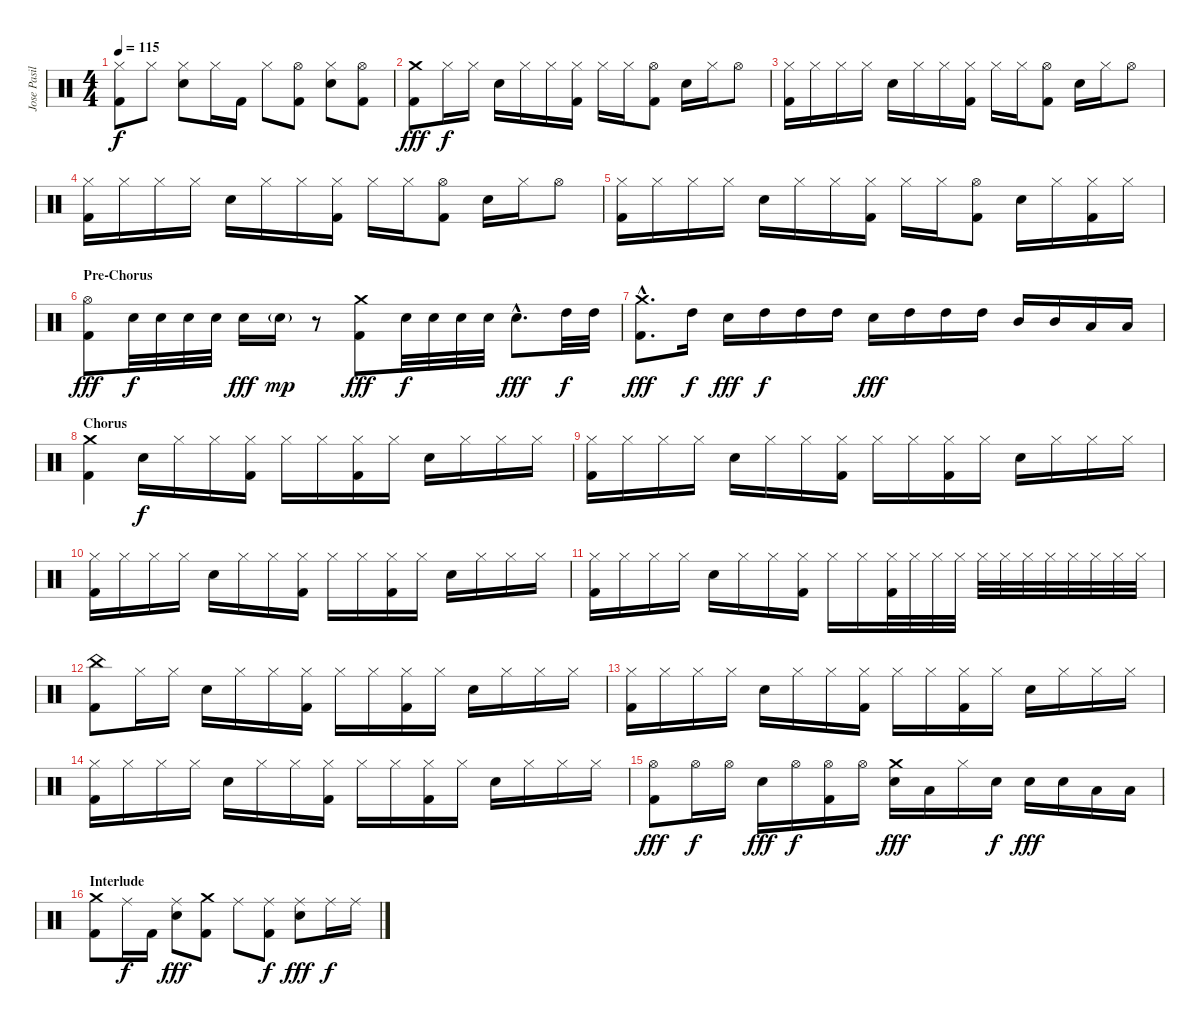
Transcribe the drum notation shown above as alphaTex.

\track ("Jose Pasillas - Drums" "Jose Pasil") {instrument percussion}
\staff {score}
\articulation defaults
\ts (4 4)
\tempo 115
\clef neutral
\ks c
("Hi-Hat (closed)" "Kick (hit) 2").8{dy f} "Hi-Hat (closed)".8 ("Hi-Hat (closed)" "Electric Snare (hit)").8 "Hi-Hat (closed)".16 "Kick (hit) 2".16 "Hi-Hat (closed)".8 ("Hi-Hat (open)" "Kick (hit) 2").8 ("Hi-Hat (closed)" "Electric Snare (hit)").8 ("Hi-Hat (open)" "Kick (hit) 2").8 |
("Crash medium (hit)" "Kick (hit) 2").8{dy fff} "Hi-Hat (closed)".16{dy f} "Hi-Hat (closed)".16 "Electric Snare (hit)".16 "Hi-Hat (closed)".16 "Hi-Hat (closed)".16 ("Hi-Hat (closed)" "Kick (hit) 2").16 "Hi-Hat (closed)".16 "Hi-Hat (closed)".16 ("Hi-Hat (open)" "Kick (hit) 2").8 "Electric Snare (hit)".16 "Hi-Hat (closed)".16 "Hi-Hat (open)".8 |
("Hi-Hat (closed)" "Kick (hit) 2").16 "Hi-Hat (closed)".16 "Hi-Hat (closed)".16 "Hi-Hat (closed)".16 "Electric Snare (hit)".16 "Hi-Hat (closed)".16 "Hi-Hat (closed)".16 ("Hi-Hat (closed)" "Kick (hit) 2").16 "Hi-Hat (closed)".16 "Hi-Hat (closed)".16 ("Hi-Hat (open)" "Kick (hit) 2").8 "Electric Snare (hit)".16 "Hi-Hat (closed)".16 "Hi-Hat (open)".8 |
("Hi-Hat (closed)" "Kick (hit) 2").16 "Hi-Hat (closed)".16 "Hi-Hat (closed)".16 "Hi-Hat (closed)".16 "Electric Snare (hit)".16 "Hi-Hat (closed)".16 "Hi-Hat (closed)".16 ("Hi-Hat (closed)" "Kick (hit) 2").16 "Hi-Hat (closed)".16 "Hi-Hat (closed)".16 ("Hi-Hat (open)" "Kick (hit) 2").8 "Electric Snare (hit)".16 "Hi-Hat (closed)".16 "Hi-Hat (open)".8 |
("Hi-Hat (closed)" "Kick (hit) 2").16 "Hi-Hat (closed)".16 "Hi-Hat (closed)".16 "Hi-Hat (closed)".16 "Electric Snare (hit)".16 "Hi-Hat (closed)".16 "Hi-Hat (closed)".16 ("Hi-Hat (closed)" "Kick (hit) 2").16 "Hi-Hat (closed)".16 "Hi-Hat (closed)".16 ("Hi-Hat (open)" "Kick (hit) 2").8 "Electric Snare (hit)".16 "Hi-Hat (closed)".16 ("Hi-Hat (closed)" "Kick (hit) 2").16 "Hi-Hat (closed)".16 |
\section ("" "Pre-Chorus")
("Hi-Hat (open)" "Kick (hit) 2").8{dy fff} "Electric Snare (hit)".32{dy f} "Electric Snare (hit)".32 "Electric Snare (hit)".32 "Electric Snare (hit)".32 "Electric Snare (hit)".16{dy fff} "Electric Snare (hit)"{g}.16{dy mp} r.8 ("Crash medium (hit)" "Kick (hit) 2").8{dy fff} "Electric Snare (hit)".32{dy f} "Electric Snare (hit)".32 "Electric Snare (hit)".32 "Electric Snare (hit)".32 "Electric Snare (hit)"{hac}.8{d dy fff} "High Tom (hit)".32{dy f} "High Tom (hit)".32 |
("Crash medium (hit)"{hac} "Kick (hit) 2"{hac}).8{d dy fff} "High Tom (hit)".16{dy f} "Electric Snare (hit)".16{dy fff} "High Tom (hit)".16{dy f} "High Tom (hit)".16 "High Tom (hit)".16 "Electric Snare (hit)".16{dy fff} "High Tom (hit)".16 "High Tom (hit)".16 "High Tom (hit)".16 "Mid Tom (hit)".16 "Mid Tom (hit)".16 "Low Tom (hit)".16 "Low Tom (hit)".16 |
\section ("" "Chorus")
("Crash medium (hit)" "Kick (hit) 2").4 "Electric Snare (hit)".16{dy f} "Hi-Hat (closed)".16 "Hi-Hat (closed)".16 ("Hi-Hat (closed)" "Kick (hit) 2").16 "Hi-Hat (closed)".16 "Hi-Hat (closed)".16 ("Hi-Hat (closed)" "Kick (hit) 2").16 "Hi-Hat (closed)".16 "Electric Snare (hit)".16 "Hi-Hat (closed)".16 "Hi-Hat (closed)".16 "Hi-Hat (closed)".16 |
("Hi-Hat (closed)" "Kick (hit) 2").16 "Hi-Hat (closed)".16 "Hi-Hat (closed)".16 "Hi-Hat (closed)".16 "Electric Snare (hit)".16 "Hi-Hat (closed)".16 "Hi-Hat (closed)".16 ("Hi-Hat (closed)" "Kick (hit) 2").16 "Hi-Hat (closed)".16 "Hi-Hat (closed)".16 ("Hi-Hat (closed)" "Kick (hit) 2").16 "Hi-Hat (closed)".16 "Electric Snare (hit)".16 "Hi-Hat (closed)".16 "Hi-Hat (closed)".16 "Hi-Hat (closed)".16 |
("Hi-Hat (closed)" "Kick (hit) 2").16 "Hi-Hat (closed)".16 "Hi-Hat (closed)".16 "Hi-Hat (closed)".16 "Electric Snare (hit)".16 "Hi-Hat (closed)".16 "Hi-Hat (closed)".16 ("Hi-Hat (closed)" "Kick (hit) 2").16 "Hi-Hat (closed)".16 "Hi-Hat (closed)".16 ("Hi-Hat (closed)" "Kick (hit) 2").16 "Hi-Hat (closed)".16 "Electric Snare (hit)".16 "Hi-Hat (closed)".16 "Hi-Hat (closed)".16 "Hi-Hat (closed)".16 |
("Hi-Hat (closed)" "Kick (hit) 2").16 "Hi-Hat (closed)".16 "Hi-Hat (closed)".16 "Hi-Hat (closed)".16 "Electric Snare (hit)".16 "Hi-Hat (closed)".16 "Hi-Hat (closed)".16 ("Hi-Hat (closed)" "Kick (hit) 2").16 "Hi-Hat (closed)".16 "Hi-Hat (closed)".16 ("Hi-Hat (closed)" "Kick (hit) 2").32 "Hi-Hat (closed)".32 "Hi-Hat (closed)".32 "Hi-Hat (closed)".32 "Hi-Hat (closed)".32 "Hi-Hat (closed)".32 "Hi-Hat (closed)".32 "Hi-Hat (closed)".32 "Hi-Hat (closed)".32 "Hi-Hat (closed)".32 "Hi-Hat (closed)".32 "Hi-Hat (closed)".32 |
("China (hit)" "Kick (hit) 2").8 "Hi-Hat (closed)".16 "Hi-Hat (closed)".16 "Electric Snare (hit)".16 "Hi-Hat (closed)".16 "Hi-Hat (closed)".16 ("Hi-Hat (closed)" "Kick (hit) 2").16 "Hi-Hat (closed)".16 "Hi-Hat (closed)".16 ("Hi-Hat (closed)" "Kick (hit) 2").16 "Hi-Hat (closed)".16 "Electric Snare (hit)".16 "Hi-Hat (closed)".16 "Hi-Hat (closed)".16 "Hi-Hat (closed)".16 |
("Hi-Hat (closed)" "Kick (hit) 2").16 "Hi-Hat (closed)".16 "Hi-Hat (closed)".16 "Hi-Hat (closed)".16 "Electric Snare (hit)".16 "Hi-Hat (closed)".16 "Hi-Hat (closed)".16 ("Hi-Hat (closed)" "Kick (hit) 2").16 "Hi-Hat (closed)".16 "Hi-Hat (closed)".16 ("Hi-Hat (closed)" "Kick (hit) 2").16 "Hi-Hat (closed)".16 "Electric Snare (hit)".16 "Hi-Hat (closed)".16 "Hi-Hat (closed)".16 "Hi-Hat (closed)".16 |
("Hi-Hat (closed)" "Kick (hit) 2").16 "Hi-Hat (closed)".16 "Hi-Hat (closed)".16 "Hi-Hat (closed)".16 "Electric Snare (hit)".16 "Hi-Hat (closed)".16 "Hi-Hat (closed)".16 ("Hi-Hat (closed)" "Kick (hit) 2").16 "Hi-Hat (closed)".16 "Hi-Hat (closed)".16 ("Hi-Hat (closed)" "Kick (hit) 2").16 "Hi-Hat (closed)".16 "Electric Snare (hit)".16 "Hi-Hat (closed)".16 "Hi-Hat (closed)".16 "Hi-Hat (closed)".16 |
("Hi-Hat (open)" "Kick (hit) 2").8{dy fff} "Hi-Hat (open)".16{dy f} "Hi-Hat (open)".16 "Electric Snare (hit)".16{dy fff} "Hi-Hat (open)".16{dy f} ("Hi-Hat (open)" "Kick (hit) 2").16 "Hi-Hat (open)".16 ("Crash medium (hit)" "Electric Snare (hit)").16{dy fff} "Low Tom (hit)".16 "Hi-Hat (closed)".16 "Electric Snare (hit)".16{dy f} "Electric Snare (hit)".16{dy fff} "Electric Snare (hit)".16 "Low Tom (hit)".16 "Low Tom (hit)".16 |
\section ("" "Interlude")
("Crash medium (hit)" "Kick (hit) 2").8 "Ride (middle)".16{dy f} "Kick (hit) 2".16 ("Ride (middle)" "Electric Snare (hit)").8{dy fff} ("Crash medium (hit)" "Kick (hit) 2").8 "Ride (middle)".8 ("Ride (middle)" "Kick (hit) 2").8{dy f} ("Ride (middle)" "Electric Snare (hit)").8{dy fff} "Ride (middle)".16{dy f} "Ride (middle)".16
